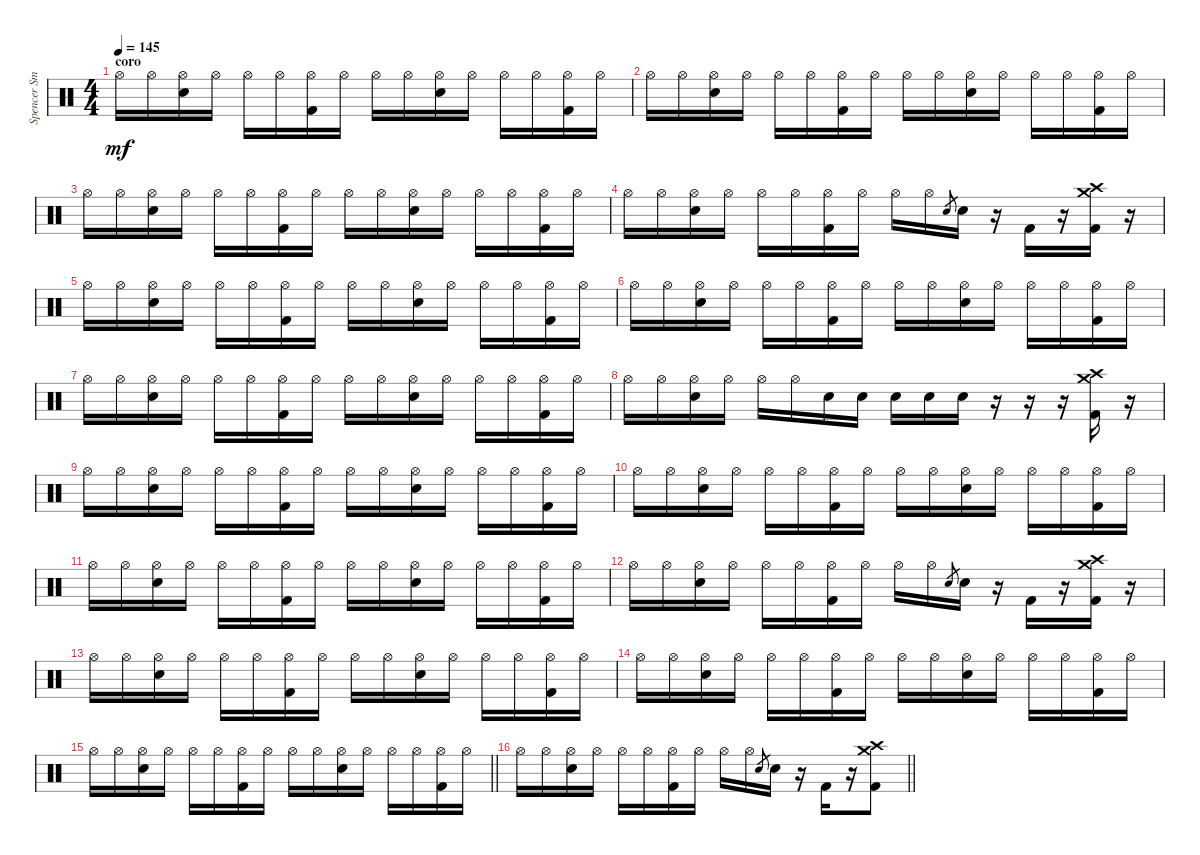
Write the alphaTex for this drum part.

\track ("Spencer Smith" "Spencer Sm") {instrument percussion}
\staff {score}
\articulation defaults
\ts (4 4)
\section ("" "coro")
\tempo 145
\clef neutral
\ks c "Hi-Hat (open)".16{dy mf} "Hi-Hat (open)".16
("Hi-Hat (open)" "Electric Snare (hit)").16 "Hi-Hat (open)".16 "Hi-Hat (open)".16 "Hi-Hat (open)".16 ("Hi-Hat (open)" "Kick (hit) 2").16 "Hi-Hat (open)".16 "Hi-Hat (open)".16 "Hi-Hat (open)".16 ("Hi-Hat (open)" "Electric Snare (hit)").16 "Hi-Hat (open)".16 "Hi-Hat (open)".16 "Hi-Hat (open)".16 ("Hi-Hat (open)" "Kick (hit) 2").16 "Hi-Hat (open)".16 |
"Hi-Hat (open)".16 "Hi-Hat (open)".16 ("Hi-Hat (open)" "Electric Snare (hit)").16 "Hi-Hat (open)".16 "Hi-Hat (open)".16 "Hi-Hat (open)".16 ("Hi-Hat (open)" "Kick (hit) 2").16 "Hi-Hat (open)".16 "Hi-Hat (open)".16 "Hi-Hat (open)".16 ("Hi-Hat (open)" "Electric Snare (hit)").16 "Hi-Hat (open)".16 "Hi-Hat (open)".16 "Hi-Hat (open)".16 ("Hi-Hat (open)" "Kick (hit) 2").16 "Hi-Hat (open)".16 |
"Hi-Hat (open)".16 "Hi-Hat (open)".16 ("Hi-Hat (open)" "Electric Snare (hit)").16 "Hi-Hat (open)".16 "Hi-Hat (open)".16 "Hi-Hat (open)".16 ("Hi-Hat (open)" "Kick (hit) 2").16 "Hi-Hat (open)".16 "Hi-Hat (open)".16 "Hi-Hat (open)".16 ("Hi-Hat (open)" "Electric Snare (hit)").16 "Hi-Hat (open)".16 "Hi-Hat (open)".16 "Hi-Hat (open)".16 ("Hi-Hat (open)" "Kick (hit) 2").16 "Hi-Hat (open)".16 |
"Hi-Hat (open)".16 "Hi-Hat (open)".16 ("Hi-Hat (open)" "Electric Snare (hit)").16 "Hi-Hat (open)".16 "Hi-Hat (open)".16 "Hi-Hat (open)".16 ("Hi-Hat (open)" "Kick (hit) 2").16 "Hi-Hat (open)".16 "Hi-Hat (open)".16 "Hi-Hat (open)".16 "Electric Snare (hit)".8{gr} "Electric Snare (hit)".16 r.16 "Kick (hit) 2".16 r.16 ("Crash medium (hit)" "Crash high (hit)" "Kick (hit) 2").16 r.16 |
"Hi-Hat (open)".16 "Hi-Hat (open)".16 ("Hi-Hat (open)" "Electric Snare (hit)").16 "Hi-Hat (open)".16 "Hi-Hat (open)".16 "Hi-Hat (open)".16 ("Hi-Hat (open)" "Kick (hit) 2").16 "Hi-Hat (open)".16 "Hi-Hat (open)".16 "Hi-Hat (open)".16 ("Hi-Hat (open)" "Electric Snare (hit)").16 "Hi-Hat (open)".16 "Hi-Hat (open)".16 "Hi-Hat (open)".16 ("Hi-Hat (open)" "Kick (hit) 2").16 "Hi-Hat (open)".16 |
"Hi-Hat (open)".16 "Hi-Hat (open)".16 ("Hi-Hat (open)" "Electric Snare (hit)").16 "Hi-Hat (open)".16 "Hi-Hat (open)".16 "Hi-Hat (open)".16 ("Hi-Hat (open)" "Kick (hit) 2").16 "Hi-Hat (open)".16 "Hi-Hat (open)".16 "Hi-Hat (open)".16 ("Hi-Hat (open)" "Electric Snare (hit)").16 "Hi-Hat (open)".16 "Hi-Hat (open)".16 "Hi-Hat (open)".16 ("Hi-Hat (open)" "Kick (hit) 2").16 "Hi-Hat (open)".16 |
"Hi-Hat (open)".16 "Hi-Hat (open)".16 ("Hi-Hat (open)" "Electric Snare (hit)").16 "Hi-Hat (open)".16 "Hi-Hat (open)".16 "Hi-Hat (open)".16 ("Hi-Hat (open)" "Kick (hit) 2").16 "Hi-Hat (open)".16 "Hi-Hat (open)".16 "Hi-Hat (open)".16 ("Hi-Hat (open)" "Electric Snare (hit)").16 "Hi-Hat (open)".16 "Hi-Hat (open)".16 "Hi-Hat (open)".16 ("Hi-Hat (open)" "Kick (hit) 2").16 "Hi-Hat (open)".16 |
"Hi-Hat (open)".16 "Hi-Hat (open)".16 ("Hi-Hat (open)" "Electric Snare (hit)").16 "Hi-Hat (open)".16 "Hi-Hat (open)".16 "Hi-Hat (open)".16 "Electric Snare (hit)".16 "Electric Snare (hit)".16 "Electric Snare (hit)".16 "Electric Snare (hit)".16 "Electric Snare (hit)".16 r.16 r.16 r.16 ("Crash medium (hit)" "Crash high (hit)" "Kick (hit) 2").16 r.16 |
"Hi-Hat (open)".16 "Hi-Hat (open)".16 ("Hi-Hat (open)" "Electric Snare (hit)").16 "Hi-Hat (open)".16 "Hi-Hat (open)".16 "Hi-Hat (open)".16 ("Hi-Hat (open)" "Kick (hit) 2").16 "Hi-Hat (open)".16 "Hi-Hat (open)".16 "Hi-Hat (open)".16 ("Hi-Hat (open)" "Electric Snare (hit)").16 "Hi-Hat (open)".16 "Hi-Hat (open)".16 "Hi-Hat (open)".16 ("Hi-Hat (open)" "Kick (hit) 2").16 "Hi-Hat (open)".16 |
"Hi-Hat (open)".16 "Hi-Hat (open)".16 ("Hi-Hat (open)" "Electric Snare (hit)").16 "Hi-Hat (open)".16 "Hi-Hat (open)".16 "Hi-Hat (open)".16 ("Hi-Hat (open)" "Kick (hit) 2").16 "Hi-Hat (open)".16 "Hi-Hat (open)".16 "Hi-Hat (open)".16 ("Hi-Hat (open)" "Electric Snare (hit)").16 "Hi-Hat (open)".16 "Hi-Hat (open)".16 "Hi-Hat (open)".16 ("Hi-Hat (open)" "Kick (hit) 2").16 "Hi-Hat (open)".16 |
"Hi-Hat (open)".16 "Hi-Hat (open)".16 ("Hi-Hat (open)" "Electric Snare (hit)").16 "Hi-Hat (open)".16 "Hi-Hat (open)".16 "Hi-Hat (open)".16 ("Hi-Hat (open)" "Kick (hit) 2").16 "Hi-Hat (open)".16 "Hi-Hat (open)".16 "Hi-Hat (open)".16 ("Hi-Hat (open)" "Electric Snare (hit)").16 "Hi-Hat (open)".16 "Hi-Hat (open)".16 "Hi-Hat (open)".16 ("Hi-Hat (open)" "Kick (hit) 2").16 "Hi-Hat (open)".16 |
"Hi-Hat (open)".16 "Hi-Hat (open)".16 ("Hi-Hat (open)" "Electric Snare (hit)").16 "Hi-Hat (open)".16 "Hi-Hat (open)".16 "Hi-Hat (open)".16 ("Hi-Hat (open)" "Kick (hit) 2").16 "Hi-Hat (open)".16 "Hi-Hat (open)".16 "Hi-Hat (open)".16 "Electric Snare (hit)".8{gr} "Electric Snare (hit)".16 r.16 "Kick (hit) 2".16 r.16 ("Crash medium (hit)" "Crash high (hit)" "Kick (hit) 2").16 r.16 |
"Hi-Hat (open)".16 "Hi-Hat (open)".16 ("Hi-Hat (open)" "Electric Snare (hit)").16 "Hi-Hat (open)".16 "Hi-Hat (open)".16 "Hi-Hat (open)".16 ("Hi-Hat (open)" "Kick (hit) 2").16 "Hi-Hat (open)".16 "Hi-Hat (open)".16 "Hi-Hat (open)".16 ("Hi-Hat (open)" "Electric Snare (hit)").16 "Hi-Hat (open)".16 "Hi-Hat (open)".16 "Hi-Hat (open)".16 ("Hi-Hat (open)" "Kick (hit) 2").16 "Hi-Hat (open)".16 |
"Hi-Hat (open)".16 "Hi-Hat (open)".16 ("Hi-Hat (open)" "Electric Snare (hit)").16 "Hi-Hat (open)".16 "Hi-Hat (open)".16 "Hi-Hat (open)".16 ("Hi-Hat (open)" "Kick (hit) 2").16 "Hi-Hat (open)".16 "Hi-Hat (open)".16 "Hi-Hat (open)".16 ("Hi-Hat (open)" "Electric Snare (hit)").16 "Hi-Hat (open)".16 "Hi-Hat (open)".16 "Hi-Hat (open)".16 ("Hi-Hat (open)" "Kick (hit) 2").16 "Hi-Hat (open)".16 |
\barLineRight lightlight "Hi-Hat (open)".16 "Hi-Hat (open)".16
("Hi-Hat (open)" "Electric Snare (hit)").16 "Hi-Hat (open)".16 "Hi-Hat (open)".16 "Hi-Hat (open)".16 ("Hi-Hat (open)" "Kick (hit) 2").16 "Hi-Hat (open)".16 "Hi-Hat (open)".16 "Hi-Hat (open)".16 ("Hi-Hat (open)" "Electric Snare (hit)").16 "Hi-Hat (open)".16 "Hi-Hat (open)".16 "Hi-Hat (open)".16 ("Hi-Hat (open)" "Kick (hit) 2").16 "Hi-Hat (open)".16 |
\barLineRight lightlight "Hi-Hat (open)".16 "Hi-Hat (open)".16
("Hi-Hat (open)" "Electric Snare (hit)").16 "Hi-Hat (open)".16 "Hi-Hat (open)".16 "Hi-Hat (open)".16 ("Hi-Hat (open)" "Kick (hit) 2").16 "Hi-Hat (open)".16 "Hi-Hat (open)".16 "Hi-Hat (open)".16 "Electric Snare (hit)".8{gr} "Electric Snare (hit)".16 r.16 "Kick (hit) 2".16 r.16 ("Crash high (hit)" "Crash medium (hit)" "Kick (hit) 2").8
